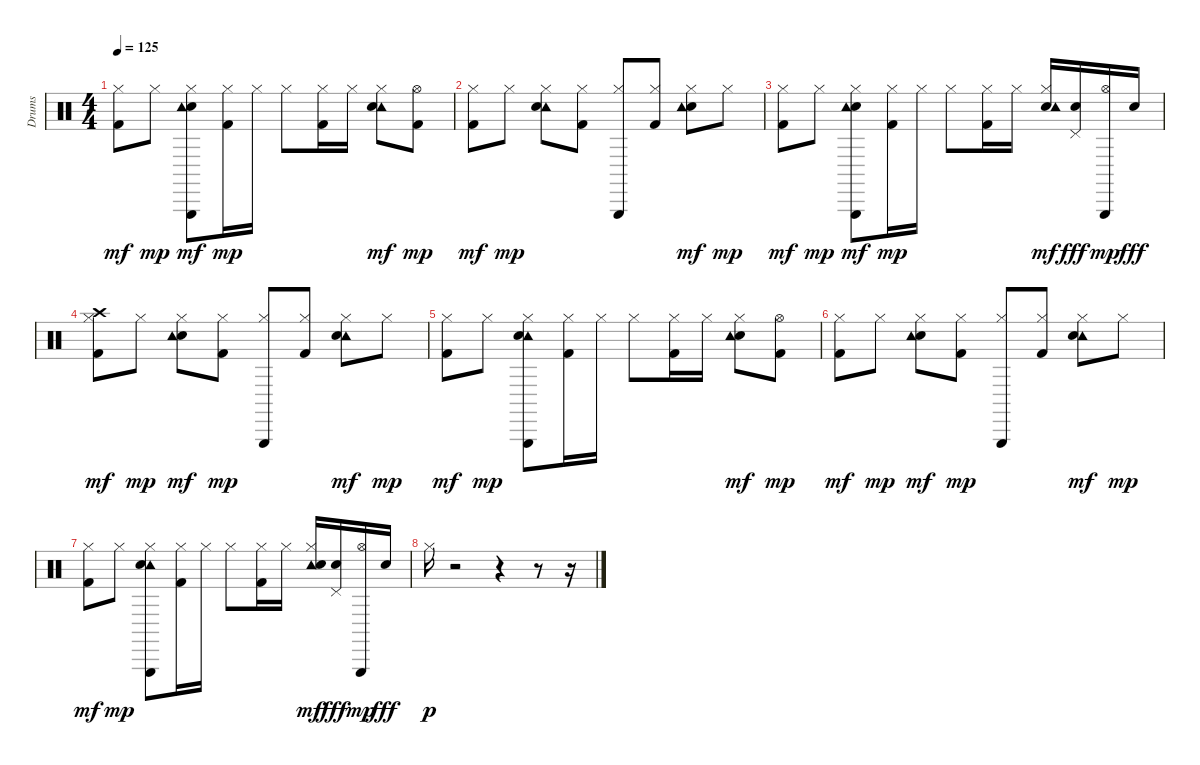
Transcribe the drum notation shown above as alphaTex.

\track ("Drums" "Drums") {instrument percussion}
\staff {score}
\articulation defaults
\ts (4 4)
\tempo 125
\clef neutral
\ks c
("Kick (hit) 2" "Hi-Hat (closed)").8{dy mf} "Hi-Hat (closed)".8{dy mp} ("Triangle (hit)" "Hi-Hat (closed)" "Electric Snare (hit)" "Tambourine (hit)").8{dy mf} ("Kick (hit) 2" "Hi-Hat (closed)").16{dy mp} "Hi-Hat (closed)".16 "Hi-Hat (closed)".8 ("Kick (hit) 2" "Hi-Hat (closed)").16 "Hi-Hat (closed)".16 ("Tambourine (hit)" "Electric Snare (hit)" "Hi-Hat (closed)").8{dy mf} ("Hi-Hat (open)" "Kick (hit) 2").8{dy mp} |
("Kick (hit) 2" "Hi-Hat (closed)").8{dy mf} "Hi-Hat (closed)".8{dy mp} ("Tambourine (hit)" "Electric Snare (hit)" "Hi-Hat (closed)").8 ("Kick (hit) 2" "Hi-Hat (closed)").8 ("Triangle (hit)" "Hi-Hat (closed)").8 ("Hi-Hat (closed)" "Kick (hit) 2").8 ("Hi-Hat (closed)" "Electric Snare (hit)" "Tambourine (hit)").8{dy mf} "Hi-Hat (closed)".8{dy mp} |
("Hi-Hat (closed)" "Kick (hit) 2").8{dy mf} "Hi-Hat (closed)".8{dy mp} ("Triangle (hit)" "Hi-Hat (closed)" "Electric Snare (hit)" "Tambourine (hit)").8{dy mf} ("Kick (hit) 2" "Hi-Hat (closed)").16{dy mp} "Hi-Hat (closed)".16 "Hi-Hat (closed)".8 ("Hi-Hat (closed)" "Kick (hit) 2").16 "Hi-Hat (closed)".16 ("Hi-Hat (closed)" "Electric Snare (hit)" "Tambourine (hit)").16{dy mf} ("Pedal Hi-Hat (hit)" "Electric Snare (hit)").16{dy fff} ("Hi-Hat (open)" "Triangle (hit)").16{dy mp} "Electric Snare (hit)".16{dy fff} |
("Hi-Hat (closed)" "Kick (hit) 2" "Crash high (hit)").8{dy mf} "Hi-Hat (closed)".8{dy mp} ("Hi-Hat (closed)" "Electric Snare (hit)" "Tambourine (hit)").8{dy mf} ("Hi-Hat (closed)" "Kick (hit) 2").8{dy mp} ("Hi-Hat (closed)" "Triangle (hit)").8 ("Hi-Hat (closed)" "Kick (hit) 2").8 ("Tambourine (hit)" "Electric Snare (hit)" "Hi-Hat (closed)").8{dy mf} "Hi-Hat (closed)".8{dy mp} |
("Hi-Hat (closed)" "Kick (hit) 2").8{dy mf} "Hi-Hat (closed)".8{dy mp} ("Tambourine (hit)" "Electric Snare (hit)" "Hi-Hat (closed)" "Triangle (hit)").8 ("Hi-Hat (closed)" "Kick (hit) 2").16 "Hi-Hat (closed)".16 "Hi-Hat (closed)".8 ("Kick (hit) 2" "Hi-Hat (closed)").16 "Hi-Hat (closed)".16 ("Hi-Hat (closed)" "Electric Snare (hit)" "Tambourine (hit)").8{dy mf} ("Kick (hit) 2" "Hi-Hat (open)").8{dy mp} |
("Kick (hit) 2" "Hi-Hat (closed)").8{dy mf} "Hi-Hat (closed)".8{dy mp} ("Hi-Hat (closed)" "Electric Snare (hit)" "Tambourine (hit)").8{dy mf} ("Hi-Hat (closed)" "Kick (hit) 2").8{dy mp} ("Triangle (hit)" "Hi-Hat (closed)").8 ("Kick (hit) 2" "Hi-Hat (closed)").8 ("Tambourine (hit)" "Electric Snare (hit)" "Hi-Hat (closed)").8{dy mf} "Hi-Hat (closed)".8{dy mp} |
("Kick (hit) 2" "Hi-Hat (closed)").8{dy mf} "Hi-Hat (closed)".8{dy mp} ("Tambourine (hit)" "Electric Snare (hit)" "Hi-Hat (closed)" "Triangle (hit)").8 ("Kick (hit) 2" "Hi-Hat (closed)").16 "Hi-Hat (closed)".16 "Hi-Hat (closed)".8 ("Kick (hit) 2" "Hi-Hat (closed)").16 "Hi-Hat (closed)".16 ("Tambourine (hit)" "Electric Snare (hit)" "Hi-Hat (closed)").16{dy mf} ("Electric Snare (hit)" "Pedal Hi-Hat (hit)").16{dy fff} ("Triangle (hit)" "Hi-Hat (open)").16{dy mp} "Electric Snare (hit)".16{dy fff} |
"Hi-Hat (closed)".16{dy p} r.2 r.4 r.8 r.16
